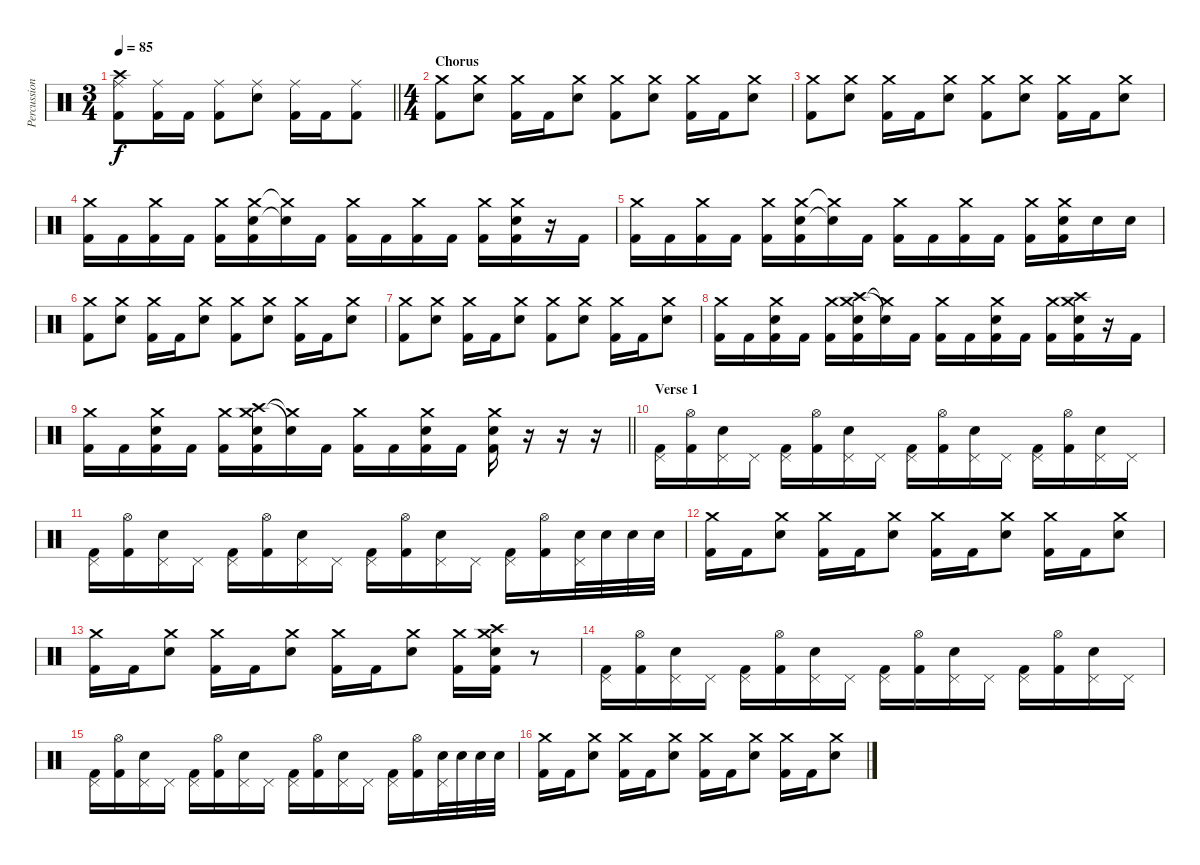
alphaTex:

\track ("Percussion" "Percussion") {instrument percussion}
\staff {score}
\articulation defaults
\ts (3 4)
\tempo 85
\clef neutral
\barLineRight lightlight
\ks c
("Ride (middle)" "Crash high (hit)" "Kick (hit) 2").8{dy f} ("Ride (middle)" "Kick (hit) 2").16 "Kick (hit) 2".16 ("Ride (middle)" "Kick (hit) 2").8 ("Ride (middle)" "Electric Snare (hit)").8 ("Ride (middle)" "Kick (hit) 2").16 "Kick (hit) 2".16 ("Ride (middle)" "Kick (hit) 2").8 |
\ts (4 4)
\section ("" "Chorus")
("Crash medium (hit)" "Kick (hit) 2").8 ("Crash medium (hit)" "Electric Snare (hit)").8 ("Crash medium (hit)" "Kick (hit) 2").16 "Kick (hit) 2".16 ("Crash medium (hit)" "Electric Snare (hit)").8 ("Crash medium (hit)" "Kick (hit) 2").8 ("Crash medium (hit)" "Electric Snare (hit)").8 ("Crash medium (hit)" "Kick (hit) 2").16 "Kick (hit) 2".16 ("Crash medium (hit)" "Electric Snare (hit)").8 |
("Crash medium (hit)" "Kick (hit) 2").8 ("Crash medium (hit)" "Electric Snare (hit)").8 ("Crash medium (hit)" "Kick (hit) 2").16 "Kick (hit) 2".16 ("Crash medium (hit)" "Electric Snare (hit)").8 ("Crash medium (hit)" "Kick (hit) 2").8 ("Crash medium (hit)" "Electric Snare (hit)").8 ("Crash medium (hit)" "Kick (hit) 2").16 "Kick (hit) 2".16 ("Crash medium (hit)" "Electric Snare (hit)").8 |
("Crash medium (hit)" "Kick (hit) 2").16 "Kick (hit) 2".16 ("Crash medium (hit)" "Kick (hit) 2").16 "Kick (hit) 2".16 ("Crash medium (hit)" "Kick (hit) 2").16 ("Crash medium (hit)" "Electric Snare (hit)" "Kick (hit) 2").16 ("Crash medium (hit)"{t} "Electric Snare (hit)"{t}).16 "Kick (hit) 2".16 ("Crash medium (hit)" "Kick (hit) 2").16 "Kick (hit) 2".16 ("Crash medium (hit)" "Kick (hit) 2").16 "Kick (hit) 2".16 ("Crash medium (hit)" "Kick (hit) 2").16 ("Crash medium (hit)" "Electric Snare (hit)" "Kick (hit) 2").16 r.16 "Kick (hit) 2".16 |
("Crash medium (hit)" "Kick (hit) 2").16 "Kick (hit) 2".16 ("Crash medium (hit)" "Kick (hit) 2").16 "Kick (hit) 2".16 ("Crash medium (hit)" "Kick (hit) 2").16 ("Crash medium (hit)" "Electric Snare (hit)" "Kick (hit) 2").16 ("Crash medium (hit)"{t} "Electric Snare (hit)"{t}).16 "Kick (hit) 2".16 ("Crash medium (hit)" "Kick (hit) 2").16 "Kick (hit) 2".16 ("Crash medium (hit)" "Kick (hit) 2").16 "Kick (hit) 2".16 ("Crash medium (hit)" "Kick (hit) 2").16 ("Crash medium (hit)" "Electric Snare (hit)" "Kick (hit) 2").16 "Electric Snare (hit)".16 "Electric Snare (hit)".16 |
("Crash medium (hit)" "Kick (hit) 2").8 ("Crash medium (hit)" "Electric Snare (hit)").8 ("Crash medium (hit)" "Kick (hit) 2").16 "Kick (hit) 2".16 ("Crash medium (hit)" "Electric Snare (hit)").8 ("Crash medium (hit)" "Kick (hit) 2").8 ("Crash medium (hit)" "Electric Snare (hit)").8 ("Crash medium (hit)" "Kick (hit) 2").16 "Kick (hit) 2".16 ("Crash medium (hit)" "Electric Snare (hit)").8 |
("Crash medium (hit)" "Kick (hit) 2").8 ("Crash medium (hit)" "Electric Snare (hit)").8 ("Crash medium (hit)" "Kick (hit) 2").16 "Kick (hit) 2".16 ("Crash medium (hit)" "Electric Snare (hit)").8 ("Crash medium (hit)" "Kick (hit) 2").8 ("Crash medium (hit)" "Electric Snare (hit)").8 ("Crash medium (hit)" "Kick (hit) 2").16 "Kick (hit) 2".16 ("Crash medium (hit)" "Electric Snare (hit)").8 |
("Crash medium (hit)" "Kick (hit) 2").16 "Kick (hit) 2".16 ("Crash medium (hit)" "Electric Snare (hit)" "Kick (hit) 2").16 "Kick (hit) 2".16 ("Crash medium (hit)" "Kick (hit) 2").16 ("Crash medium (hit)" "Crash high (hit)" "Electric Snare (hit)" "Kick (hit) 2").16 ("Crash medium (hit)"{t} "Electric Snare (hit)"{t}).16 "Kick (hit) 2".16 ("Crash medium (hit)" "Kick (hit) 2").16 "Kick (hit) 2".16 ("Crash medium (hit)" "Electric Snare (hit)" "Kick (hit) 2").16 "Kick (hit) 2".16 ("Crash medium (hit)" "Kick (hit) 2").16 ("Crash medium (hit)" "Crash high (hit)" "Electric Snare (hit)" "Kick (hit) 2").16 r.16 "Kick (hit) 2".16 |
\barLineRight lightlight
("Crash medium (hit)" "Kick (hit) 2").16 "Kick (hit) 2".16 ("Crash medium (hit)" "Electric Snare (hit)" "Kick (hit) 2").16 "Kick (hit) 2".16 ("Crash medium (hit)" "Kick (hit) 2").16 ("Crash medium (hit)" "Crash high (hit)" "Electric Snare (hit)" "Kick (hit) 2").16 ("Crash medium (hit)"{t} "Electric Snare (hit)"{t}).16 "Kick (hit) 2".16 ("Crash medium (hit)" "Kick (hit) 2").16 "Kick (hit) 2".16 ("Crash medium (hit)" "Electric Snare (hit)" "Kick (hit) 2").16 "Kick (hit) 2".16 ("Crash medium (hit)" "Electric Snare (hit)" "Kick (hit) 2").16 r.16 r.16 r.16 |
\section ("" "Verse 1")
("Pedal Hi-Hat (hit)" "Kick (hit) 2").16 ("Hi-Hat (open)" "Kick (hit) 2").16 ("Pedal Hi-Hat (hit)" "Electric Snare (hit)").16 "Pedal Hi-Hat (hit)".16 ("Pedal Hi-Hat (hit)" "Kick (hit) 2").16 ("Hi-Hat (open)" "Kick (hit) 2").16 ("Pedal Hi-Hat (hit)" "Electric Snare (hit)").16 "Pedal Hi-Hat (hit)".16 ("Pedal Hi-Hat (hit)" "Kick (hit) 2").16 ("Hi-Hat (open)" "Kick (hit) 2").16 ("Pedal Hi-Hat (hit)" "Electric Snare (hit)").16 "Pedal Hi-Hat (hit)".16 ("Pedal Hi-Hat (hit)" "Kick (hit) 2").16 ("Hi-Hat (open)" "Kick (hit) 2").16 ("Pedal Hi-Hat (hit)" "Electric Snare (hit)").16 "Pedal Hi-Hat (hit)".16 |
("Pedal Hi-Hat (hit)" "Kick (hit) 2").16 ("Hi-Hat (open)" "Kick (hit) 2").16 ("Pedal Hi-Hat (hit)" "Electric Snare (hit)").16 "Pedal Hi-Hat (hit)".16 ("Pedal Hi-Hat (hit)" "Kick (hit) 2").16 ("Hi-Hat (open)" "Kick (hit) 2").16 ("Pedal Hi-Hat (hit)" "Electric Snare (hit)").16 "Pedal Hi-Hat (hit)".16 ("Pedal Hi-Hat (hit)" "Kick (hit) 2").16 ("Hi-Hat (open)" "Kick (hit) 2").16 ("Pedal Hi-Hat (hit)" "Electric Snare (hit)").16 "Pedal Hi-Hat (hit)".16 ("Pedal Hi-Hat (hit)" "Kick (hit) 2").16 ("Hi-Hat (open)" "Kick (hit) 2").16 ("Pedal Hi-Hat (hit)" "Electric Snare (hit)").32 "Electric Snare (hit)".32 "Electric Snare (hit)".32 "Electric Snare (hit)".32 |
("Crash medium (hit)" "Kick (hit) 2").16 "Kick (hit) 2".16 ("Crash medium (hit)" "Electric Snare (hit)").8 ("Crash medium (hit)" "Kick (hit) 2").16 "Kick (hit) 2".16 ("Crash medium (hit)" "Electric Snare (hit)").8 ("Crash medium (hit)" "Kick (hit) 2").16 "Kick (hit) 2".16 ("Crash medium (hit)" "Electric Snare (hit)").8 ("Crash medium (hit)" "Kick (hit) 2").16 "Kick (hit) 2".16 ("Crash medium (hit)" "Electric Snare (hit)").8 |
("Crash medium (hit)" "Kick (hit) 2").16 "Kick (hit) 2".16 ("Crash medium (hit)" "Electric Snare (hit)").8 ("Crash medium (hit)" "Kick (hit) 2").16 "Kick (hit) 2".16 ("Crash medium (hit)" "Electric Snare (hit)").8 ("Crash medium (hit)" "Kick (hit) 2").16 "Kick (hit) 2".16 ("Crash medium (hit)" "Electric Snare (hit)").8 ("Crash medium (hit)" "Kick (hit) 2").16 ("Crash medium (hit)" "Crash high (hit)" "Electric Snare (hit)" "Kick (hit) 2").16 r.8 |
("Pedal Hi-Hat (hit)" "Kick (hit) 2").16 ("Hi-Hat (open)" "Kick (hit) 2").16 ("Pedal Hi-Hat (hit)" "Electric Snare (hit)").16 "Pedal Hi-Hat (hit)".16 ("Pedal Hi-Hat (hit)" "Kick (hit) 2").16 ("Hi-Hat (open)" "Kick (hit) 2").16 ("Pedal Hi-Hat (hit)" "Electric Snare (hit)").16 "Pedal Hi-Hat (hit)".16 ("Pedal Hi-Hat (hit)" "Kick (hit) 2").16 ("Hi-Hat (open)" "Kick (hit) 2").16 ("Pedal Hi-Hat (hit)" "Electric Snare (hit)").16 "Pedal Hi-Hat (hit)".16 ("Pedal Hi-Hat (hit)" "Kick (hit) 2").16 ("Hi-Hat (open)" "Kick (hit) 2").16 ("Pedal Hi-Hat (hit)" "Electric Snare (hit)").16 "Pedal Hi-Hat (hit)".16 |
("Pedal Hi-Hat (hit)" "Kick (hit) 2").16 ("Hi-Hat (open)" "Kick (hit) 2").16 ("Pedal Hi-Hat (hit)" "Electric Snare (hit)").16 "Pedal Hi-Hat (hit)".16 ("Pedal Hi-Hat (hit)" "Kick (hit) 2").16 ("Hi-Hat (open)" "Kick (hit) 2").16 ("Pedal Hi-Hat (hit)" "Electric Snare (hit)").16 "Pedal Hi-Hat (hit)".16 ("Pedal Hi-Hat (hit)" "Kick (hit) 2").16 ("Hi-Hat (open)" "Kick (hit) 2").16 ("Pedal Hi-Hat (hit)" "Electric Snare (hit)").16 "Pedal Hi-Hat (hit)".16 ("Pedal Hi-Hat (hit)" "Kick (hit) 2").16 ("Hi-Hat (open)" "Kick (hit) 2").16 ("Pedal Hi-Hat (hit)" "Electric Snare (hit)").32 "Electric Snare (hit)".32 "Electric Snare (hit)".32 "Electric Snare (hit)".32 |
("Crash medium (hit)" "Kick (hit) 2").16 "Kick (hit) 2".16 ("Crash medium (hit)" "Electric Snare (hit)").8 ("Crash medium (hit)" "Kick (hit) 2").16 "Kick (hit) 2".16 ("Crash medium (hit)" "Electric Snare (hit)").8 ("Crash medium (hit)" "Kick (hit) 2").16 "Kick (hit) 2".16 ("Crash medium (hit)" "Electric Snare (hit)").8 ("Crash medium (hit)" "Kick (hit) 2").16 "Kick (hit) 2".16 ("Crash medium (hit)" "Electric Snare (hit)").8
